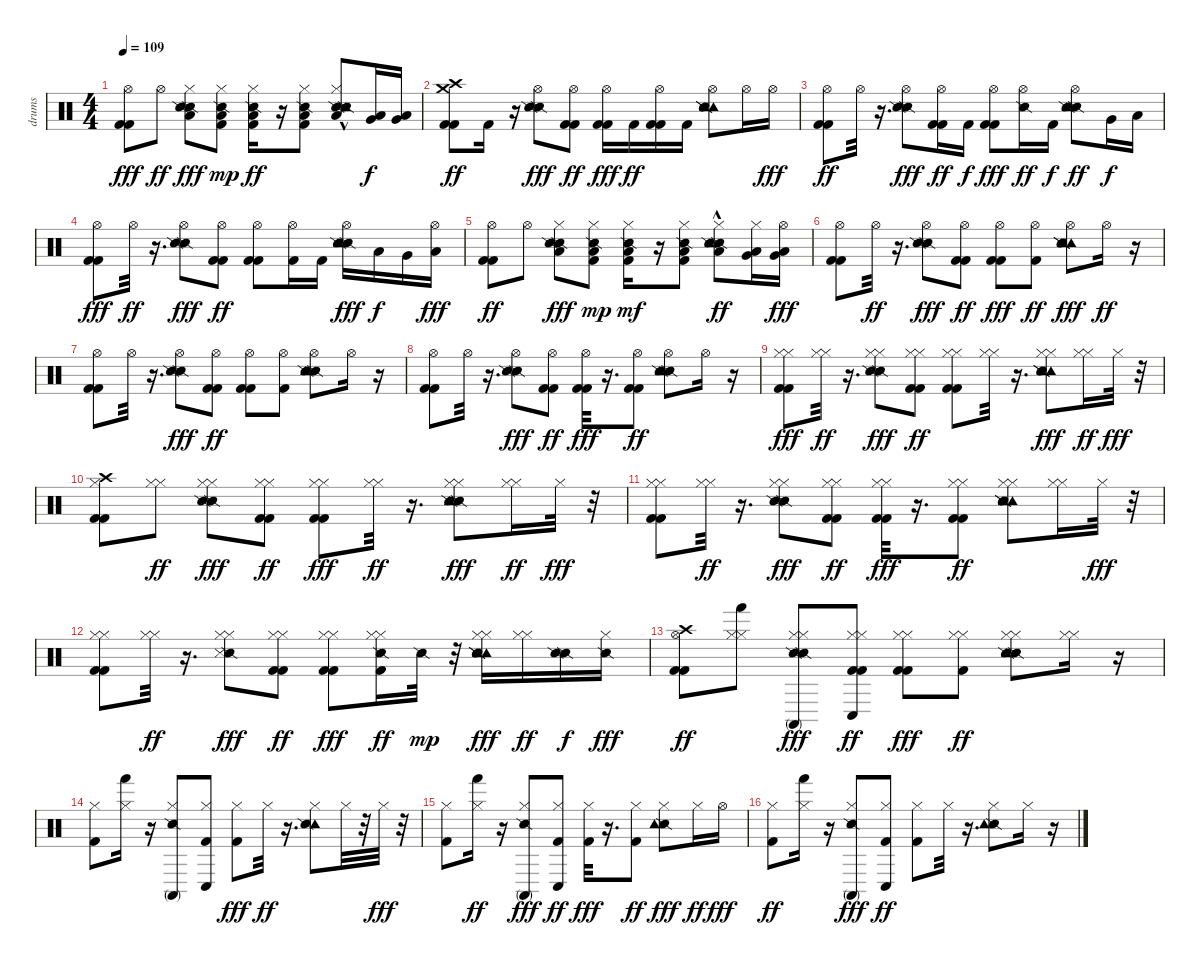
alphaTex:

\track ("drums" "drums") {instrument percussion}
\staff {score}
\articulation defaults
\ts (4 4)
\tempo 109
\clef neutral
\ks c
("Kick (hit) 2" "Kick (hit) 2" "Hi-Hat (open)").8{dy fff} "Hi-Hat (open)".8{dy ff} ("Low Floor Tom (hit)" "Snare (side stick) 2" "Snare (side stick) 2" "Hi-Hat (closed)").8{dy fff} ("Kick (hit) 2" "Hi-Hat (closed)" "Low Floor Tom (hit)" "Snare (side stick) 2").8{dy mp} ("Low Floor Tom (hit)" "Snare (side stick) 2" "Hi-Hat (closed)" "Kick (hit) 2").16{dy ff} r.16 ("Kick (hit) 2" "Snare (side stick) 2" "Low Floor Tom (hit)" "Hi-Hat (closed)").8 ("Low Floor Tom (hit)" "Snare (side stick) 2" "Hi-Hat (closed)" "Tambourine (hit)"{hac} "Snare (side stick) 2").8 ("Low Tom (hit)" "Very Low Tom (hit)").16{dy f} ("Very Low Tom (hit)" "Low Floor Tom (hit)").16 |
("Kick (hit) 2" "Crash medium (hit)" "Crash high (hit)" "Kick (hit) 2").8{dy ff} "Kick (hit) 2".16 r.16 ("Snare (side stick) 2" "Snare (side stick) 2" "Hi-Hat (open)").8{dy fff} ("Kick (hit) 2" "Hi-Hat (open)" "Kick (hit) 2").8{dy ff} ("Kick (hit) 2" "Kick (hit) 2" "Hi-Hat (open)").16{dy fff} "Kick (hit) 2".16{dy ff} ("Kick (hit) 2" "Hi-Hat (open)" "Kick (hit) 2").16 "Kick (hit) 2".16 ("Hi-Hat (open)" "Tambourine (hit)" "Snare (side stick) 2" "Tambourine (hit)" "Snare (side stick) 2").8 "Hi-Hat (open)".16 "Hi-Hat (open)".16{dy fff} |
("Kick (hit) 2" "Hi-Hat (open)" "Kick (hit) 2").8{dy ff} "Hi-Hat (open)".32 r.16{d} ("Snare (side stick) 2" "Snare (side stick) 2" "Hi-Hat (open)").8{dy fff} ("Kick (hit) 2" "Kick (hit) 2" "Hi-Hat (open)").16{dy ff} "Kick (hit) 2".16{dy f} ("Kick (hit) 2" "Kick (hit) 2" "Hi-Hat (open)").8{dy fff} ("Snare (side stick) 2" "Hi-Hat (open)").16{dy ff} "Kick (hit) 2".16{dy f} ("Snare (side stick) 2" "Hi-Hat (open)" "Snare (side stick) 2" "Tambourine (hit)" "Tambourine (hit)").8{dy ff} "Very Low Tom (hit)".16{dy f} "Low Floor Tom (hit)".16 |
("Kick (hit) 2" "Kick (hit) 2" "Hi-Hat (open)").8{dy fff} "Hi-Hat (open)".32{dy ff} r.16{d} ("Snare (side stick) 2" "Snare (side stick) 2" "Hi-Hat (open)").8{dy fff} ("Kick (hit) 2" "Hi-Hat (open)" "Kick (hit) 2").8{dy ff} ("Hi-Hat (open)" "Kick (hit) 2" "Kick (hit) 2").8 ("Hi-Hat (open)" "Kick (hit) 2").16 "Kick (hit) 2".16 ("Snare (side stick) 2" "Tambourine (hit)" "Hi-Hat (open)" "Snare (side stick) 2").16{dy fff} "Low Tom (hit)".16{dy f} "Very Low Tom (hit)".16 ("Hi-Hat (open)" "Low Floor Tom (hit)").16{dy fff} |
("Kick (hit) 2" "Hi-Hat (open)" "Kick (hit) 2").8{dy ff} "Hi-Hat (open)".8 ("Snare (side stick) 2" "Snare (side stick) 2" "Hi-Hat (closed)" "Low Floor Tom (hit)").8{dy fff} ("Hi-Hat (closed)" "Kick (hit) 2" "Snare (side stick) 2" "Low Floor Tom (hit)").8{dy mp} ("Low Floor Tom (hit)" "Hi-Hat (closed)" "Kick (hit) 2" "Snare (side stick) 2").16{dy mf} r.16 ("Hi-Hat (closed)" "Kick (hit) 2" "Low Floor Tom (hit)" "Snare (side stick) 2").8 ("Low Floor Tom (hit)" "Snare (side stick) 2" "Hi-Hat (closed)" "Tambourine (hit)"{hac} "Snare (side stick) 2").8{dy ff} ("Hi-Hat (closed)" "Very Low Tom (hit)" "Low Tom (hit)").16 ("Hi-Hat (open)" "Very Low Tom (hit)" "Low Floor Tom (hit)").16{dy fff} |
("Kick (hit) 2" "Kick (hit) 2" "Hi-Hat (open)").8 "Hi-Hat (open)".32{dy ff} r.16{d} ("Snare (side stick) 2" "Snare (side stick) 2" "Hi-Hat (open)").8{dy fff} ("Kick (hit) 2" "Hi-Hat (open)" "Kick (hit) 2").8{dy ff} ("Kick (hit) 2" "Kick (hit) 2" "Hi-Hat (open)").8{dy fff} ("Hi-Hat (open)" "Kick (hit) 2").8{dy ff} ("Tambourine (hit)" "Tambourine (hit)" "Snare (side stick) 2" "Hi-Hat (open)" "Snare (side stick) 2").8{dy fff} "Hi-Hat (open)".16{dy ff} r.16 |
("Hi-Hat (open)" "Kick (hit) 2" "Kick (hit) 2").8 "Hi-Hat (open)".32 r.16{d} ("Snare (side stick) 2" "Hi-Hat (open)" "Snare (side stick) 2").8{dy fff} ("Kick (hit) 2" "Hi-Hat (open)" "Kick (hit) 2").8{dy ff} ("Kick (hit) 2" "Hi-Hat (open)" "Kick (hit) 2").8 ("Kick (hit) 2" "Hi-Hat (open)").8 ("Snare (side stick) 2" "Snare (side stick) 2" "Tambourine (hit)" "Hi-Hat (open)" "Tambourine (hit)").8 "Hi-Hat (open)".16 r.16 |
("Hi-Hat (open)" "Kick (hit) 2" "Kick (hit) 2").8 "Hi-Hat (open)".32 r.16{d} ("Snare (side stick) 2" "Snare (side stick) 2" "Hi-Hat (open)").8{dy fff} ("Hi-Hat (open)" "Kick (hit) 2" "Kick (hit) 2").8{dy ff} ("Kick (hit) 2" "Kick (hit) 2" "Hi-Hat (open)").32{dy fff} r.16{d} ("Hi-Hat (open)" "Kick (hit) 2" "Kick (hit) 2").8{dy ff} ("Snare (side stick) 2" "Hi-Hat (open)" "Tambourine (hit)" "Snare (side stick) 2" "Tambourine (hit)").8 "Hi-Hat (open)".16 r.16 |
("Hi-Hat (closed)" "Kick (hit) 2" "Kick (hit) 2" "Hi-Hat (closed)").8{dy fff} ("Hi-Hat (closed)" "Hi-Hat (closed)").32{dy ff} r.16{d} ("Snare (side stick) 2" "Snare (side stick) 2" "Hi-Hat (closed)" "Hi-Hat (closed)").8{dy fff} ("Kick (hit) 2" "Kick (hit) 2" "Hi-Hat (closed)" "Hi-Hat (closed)").8{dy ff} ("Hi-Hat (closed)" "Kick (hit) 2" "Hi-Hat (closed)" "Kick (hit) 2").8 ("Hi-Hat (closed)" "Hi-Hat (closed)").32 r.16{d} ("Tambourine (hit)" "Hi-Hat (closed)" "Snare (side stick) 2" "Snare (side stick) 2" "Tambourine (hit)" "Hi-Hat (closed)").8{dy fff} ("Hi-Hat (closed)" "Hi-Hat (closed)").16{dy ff} "Hi-Hat (closed)".32{dy fff} r.32 |
("Hi-Hat (closed)" "Kick (hit) 2" "Kick (hit) 2" "Crash high (hit)").8 ("Hi-Hat (closed)" "Hi-Hat (closed)").8{dy ff} ("Hi-Hat (closed)" "Hi-Hat (closed)" "Snare (side stick) 2" "Snare (side stick) 2").8{dy fff} ("Kick (hit) 2" "Hi-Hat (closed)" "Kick (hit) 2" "Hi-Hat (closed)").8{dy ff} ("Kick (hit) 2" "Hi-Hat (closed)" "Kick (hit) 2" "Hi-Hat (closed)").8{dy fff} ("Hi-Hat (closed)" "Hi-Hat (closed)").32{dy ff} r.16{d} ("Hi-Hat (closed)" "Snare (side stick) 2" "Tambourine (hit)" "Snare (side stick) 2" "Tambourine (hit)" "Hi-Hat (closed)").8{dy fff} ("Hi-Hat (closed)" "Hi-Hat (closed)").16{dy ff} "Hi-Hat (closed)".32{dy fff} r.32 |
("Hi-Hat (closed)" "Kick (hit) 2" "Kick (hit) 2" "Hi-Hat (closed)").8 ("Hi-Hat (closed)" "Hi-Hat (closed)").32{dy ff} r.16{d} ("Hi-Hat (closed)" "Snare (side stick) 2" "Snare (side stick) 2" "Hi-Hat (closed)").8{dy fff} ("Hi-Hat (closed)" "Kick (hit) 2" "Hi-Hat (closed)" "Kick (hit) 2").8{dy ff} ("Kick (hit) 2" "Hi-Hat (closed)" "Kick (hit) 2" "Hi-Hat (closed)").32{dy fff} r.16{d} ("Hi-Hat (closed)" "Kick (hit) 2" "Hi-Hat (closed)" "Kick (hit) 2").8{dy ff} ("Tambourine (hit)" "Hi-Hat (closed)" "Snare (side stick) 2" "Snare (side stick) 2" "Hi-Hat (closed)" "Tambourine (hit)").8 ("Hi-Hat (closed)" "Hi-Hat (closed)").16 "Hi-Hat (closed)".32{dy fff} r.32 |
("Kick (hit) 2" "Hi-Hat (closed)" "Kick (hit) 2" "Hi-Hat (closed)").8 ("Hi-Hat (closed)" "Hi-Hat (closed)").32{dy ff} r.16{d} ("Hi-Hat (closed)" "Snare (side stick) 2" "Hi-Hat (closed)" "Snare (side stick) 3").8{dy fff} ("Kick (hit) 2" "Kick (hit) 2" "Hi-Hat (closed)" "Hi-Hat (closed)").8{dy ff} ("Hi-Hat (closed)" "Kick (hit) 2" "Kick (hit) 2" "Hi-Hat (closed)").8{dy fff} ("Kick (hit) 2" "Snare (side stick) 2" "Hi-Hat (closed)" "Hi-Hat (closed)").16{dy ff} "Snare (side stick) 2".32{dy mp} r.32 ("Hi-Hat (closed)" "Tambourine (hit)" "Snare (side stick) 2" "Snare (side stick) 2" "Tambourine (hit)" "Hi-Hat (closed)").16{dy fff} ("Hi-Hat (closed)" "Hi-Hat (closed)").16{dy ff} ("Snare (side stick) 2" "Snare (side stick) 2").16{dy f} ("Snare (side stick) 2" "Hi-Hat (closed)").16{dy fff} |
("Kick (hit) 2" "Hi-Hat (open)" "Crash high (hit)" "Kick (hit) 2").8{dy ff} ("Hand (hit)" "Hi-Hat (closed)" "Hi-Hat (closed)").8 ("Hi-Hat (closed)" "Snare (side stick) 2" "Conga high (mute)" "Hi-Hat (closed)" "Snare (side stick) 2").8{dy fff} ("Hi-Hat (closed)" "Kick (hit) 2" "Hi-Hat (closed)" "Conga low (hit)" "Kick (hit) 2").8{dy ff} ("Kick (hit) 2" "Hi-Hat (closed)" "Kick (hit) 2" "Hi-Hat (closed)").8{dy fff} ("Hi-Hat (closed)" "Kick (hit) 2" "Hi-Hat (closed)").8{dy ff} ("Hi-Hat (closed)" "Snare (side stick) 2" "Snare (side stick) 2" "Hi-Hat (closed)" "Tambourine (hit)" "Tambourine (hit)").8 ("Hi-Hat (closed)" "Hi-Hat (closed)").16 r.16 |
("Hi-Hat (closed)" "Kick (hit) 2").8 ("Hi-Hat (closed)" "Hand (hit)").16 r.16 ("Hi-Hat (closed)" "Conga high (mute)" "Snare (side stick) 2").8 ("Kick (hit) 2" "Conga low (hit)" "Hi-Hat (closed)").8 ("Kick (hit) 2" "Hi-Hat (closed)").8{dy fff} "Hi-Hat (closed)".32{dy ff} r.16{d} ("Hi-Hat (closed)" "Tambourine (hit)" "Snare (side stick) 2").8 "Hi-Hat (closed)".32 r.32 "Hi-Hat (closed)".32{dy fff} r.32 |
("Kick (hit) 2" "Hi-Hat (closed)").8 ("Hi-Hat (closed)" "Hand (hit)").16{dy ff} r.16 ("Conga high (mute)" "Hi-Hat (closed)" "Snare (side stick) 2").8{dy fff} ("Conga low (hit)" "Kick (hit) 2" "Hi-Hat (closed)").8{dy ff} ("Kick (hit) 2" "Hi-Hat (closed)").32{dy fff} r.16{d} ("Kick (hit) 2" "Hi-Hat (closed)").8{dy ff} ("Snare (side stick) 2" "Tambourine (hit)" "Hi-Hat (closed)").8{dy fff} "Hi-Hat (closed)".16{dy ff} "Hi-Hat (open)".16{dy fff} |
("Hi-Hat (closed)" "Kick (hit) 2").8{dy ff} ("Hand (hit)" "Hi-Hat (closed)").16 r.16 ("Conga high (mute)" "Hi-Hat (closed)" "Snare (side stick) 2").8{dy fff} ("Conga low (hit)" "Kick (hit) 2" "Hi-Hat (closed)").8{dy ff} ("Hi-Hat (closed)" "Kick (hit) 2").8 "Hi-Hat (closed)".32 r.16{d} ("Snare (side stick) 2" "Hi-Hat (closed)" "Tambourine (hit)").8 "Hi-Hat (closed)".16 r.16
